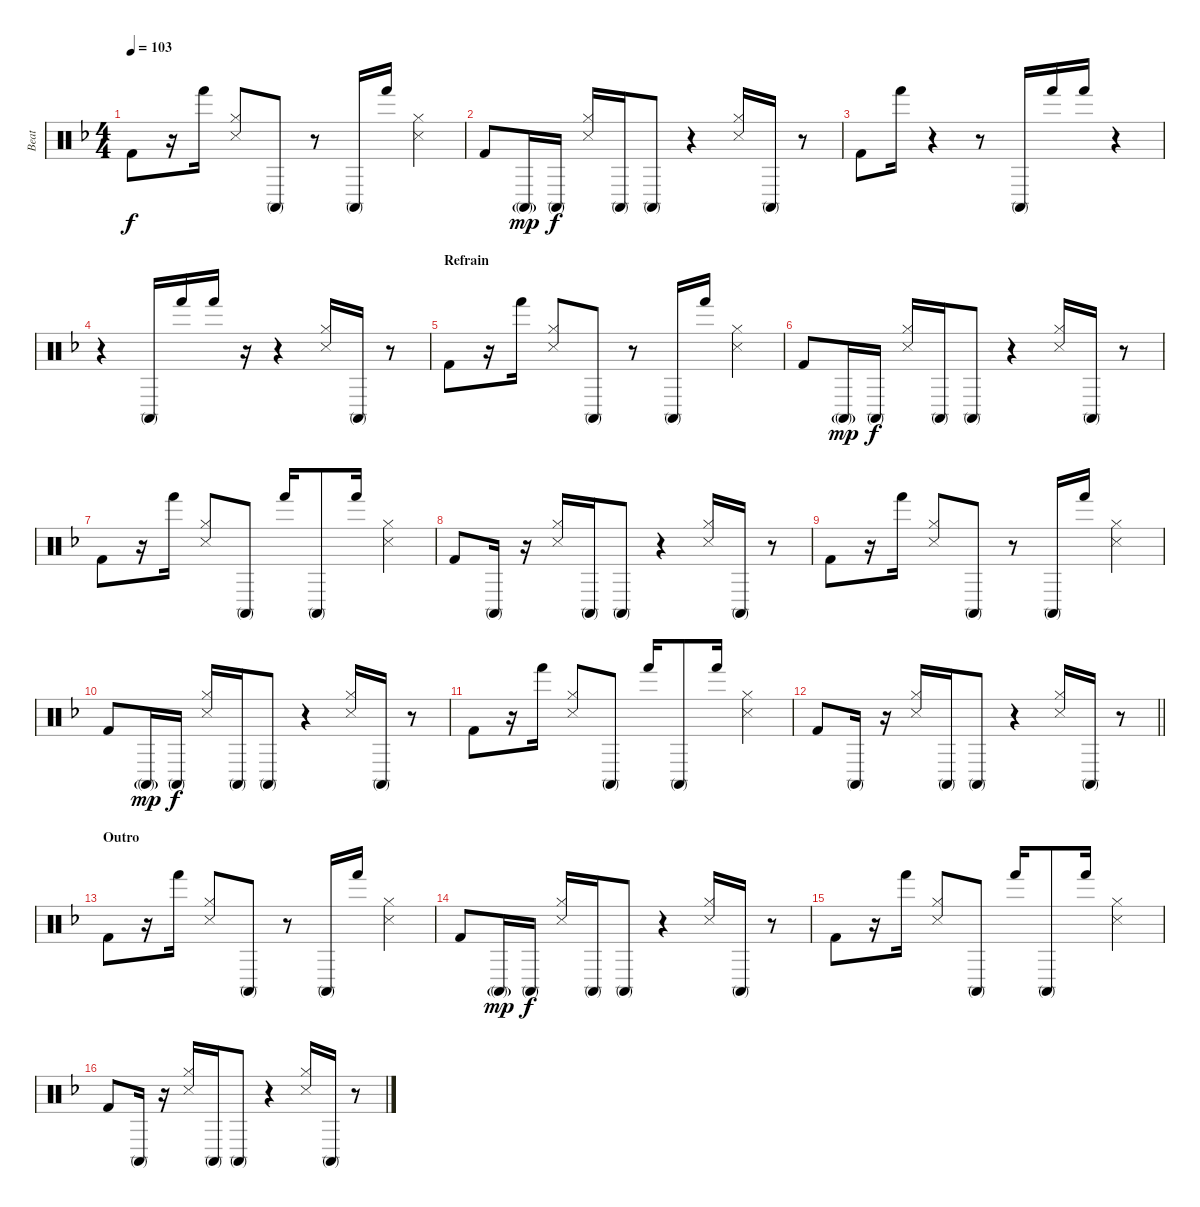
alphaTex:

\track ("Beat" "Beat") {instrument percussion}
\staff {score}
\articulation defaults
\ts (4 4)
\tempo 103
\clef neutral
\ks dminor "Kick (hit) 2".8{dy f}
r.16 "Hand (hit)".16 ("Hi-Hat (closed)" "Snare (side stick) 3").8 "Conga high (mute)".8 r.8 "Conga high (mute)".16 "Hand (hit)".16 ("Hi-Hat (closed)" "Snare (side stick) 3").4 |
"Kick (hit) 2".8 "Conga high (mute)"{g}.16{dy mp} "Conga high (mute)".16{dy f} ("Hi-Hat (closed)" "Snare (side stick) 3").16 "Conga high (mute)".16 "Conga high (mute)".8 r.4 ("Hi-Hat (closed)" "Snare (side stick) 3").16 "Conga high (mute)".16 r.8 |
"Kick (hit) 2".8 "Hand (hit)".16 r.4 r.8 "Conga high (mute)".16 "Hand (hit)".16 "Hand (hit)".16 r.4 |
r.4 "Conga high (mute)".16 "Hand (hit)".16 "Hand (hit)".16 r.16 r.4 ("Hi-Hat (closed)" "Snare (side stick) 3").16 "Conga high (mute)".16 r.8 |
\section ("" "Refrain")
"Kick (hit) 2".8 r.16 "Hand (hit)".16 ("Hi-Hat (closed)" "Snare (side stick) 3").8 "Conga high (mute)".8 r.8 "Conga high (mute)".16 "Hand (hit)".16 ("Hi-Hat (closed)" "Snare (side stick) 3").4 |
"Kick (hit) 2".8 "Conga high (mute)"{g}.16{dy mp} "Conga high (mute)".16{dy f} ("Hi-Hat (closed)" "Snare (side stick) 3").16 "Conga high (mute)".16 "Conga high (mute)".8 r.4 ("Hi-Hat (closed)" "Snare (side stick) 3").16 "Conga high (mute)".16 r.8 |
"Kick (hit) 2".8 r.16 "Hand (hit)".16 ("Hi-Hat (closed)" "Snare (side stick) 3").8 "Conga high (mute)".8 "Hand (hit)".16 "Conga high (mute)".8 "Hand (hit)".16 ("Hi-Hat (closed)" "Snare (side stick) 3").4 |
"Kick (hit) 2".8 "Conga high (mute)".16 r.16 ("Hi-Hat (closed)" "Snare (side stick) 3").16 "Conga high (mute)".16 "Conga high (mute)".8 r.4 ("Hi-Hat (closed)" "Snare (side stick) 3").16 "Conga high (mute)".16 r.8 |
"Kick (hit) 2".8 r.16 "Hand (hit)".16 ("Hi-Hat (closed)" "Snare (side stick) 3").8 "Conga high (mute)".8 r.8 "Conga high (mute)".16 "Hand (hit)".16 ("Hi-Hat (closed)" "Snare (side stick) 3").4 |
"Kick (hit) 2".8 "Conga high (mute)"{g}.16{dy mp} "Conga high (mute)".16{dy f} ("Hi-Hat (closed)" "Snare (side stick) 3").16 "Conga high (mute)".16 "Conga high (mute)".8 r.4 ("Hi-Hat (closed)" "Snare (side stick) 3").16 "Conga high (mute)".16 r.8 |
"Kick (hit) 2".8 r.16 "Hand (hit)".16 ("Hi-Hat (closed)" "Snare (side stick) 3").8 "Conga high (mute)".8 "Hand (hit)".16 "Conga high (mute)".8 "Hand (hit)".16 ("Hi-Hat (closed)" "Snare (side stick) 3").4 |
\barLineRight lightlight "Kick (hit) 2".8 "Conga high (mute)".16
r.16 ("Hi-Hat (closed)" "Snare (side stick) 3").16 "Conga high (mute)".16 "Conga high (mute)".8 r.4 ("Hi-Hat (closed)" "Snare (side stick) 3").16 "Conga high (mute)".16 r.8 |
\section ("" "Outro")
"Kick (hit) 2".8 r.16 "Hand (hit)".16 ("Hi-Hat (closed)" "Snare (side stick) 3").8 "Conga high (mute)".8 r.8 "Conga high (mute)".16 "Hand (hit)".16 ("Hi-Hat (closed)" "Snare (side stick) 3").4 |
"Kick (hit) 2".8 "Conga high (mute)"{g}.16{dy mp} "Conga high (mute)".16{dy f} ("Hi-Hat (closed)" "Snare (side stick) 3").16 "Conga high (mute)".16 "Conga high (mute)".8 r.4 ("Hi-Hat (closed)" "Snare (side stick) 3").16 "Conga high (mute)".16 r.8 |
"Kick (hit) 2".8 r.16 "Hand (hit)".16 ("Hi-Hat (closed)" "Snare (side stick) 3").8 "Conga high (mute)".8 "Hand (hit)".16 "Conga high (mute)".8 "Hand (hit)".16 ("Hi-Hat (closed)" "Snare (side stick) 3").4 |
"Kick (hit) 2".8 "Conga high (mute)".16 r.16 ("Hi-Hat (closed)" "Snare (side stick) 3").16 "Conga high (mute)".16 "Conga high (mute)".8 r.4 ("Hi-Hat (closed)" "Snare (side stick) 3").16 "Conga high (mute)".16 r.8
